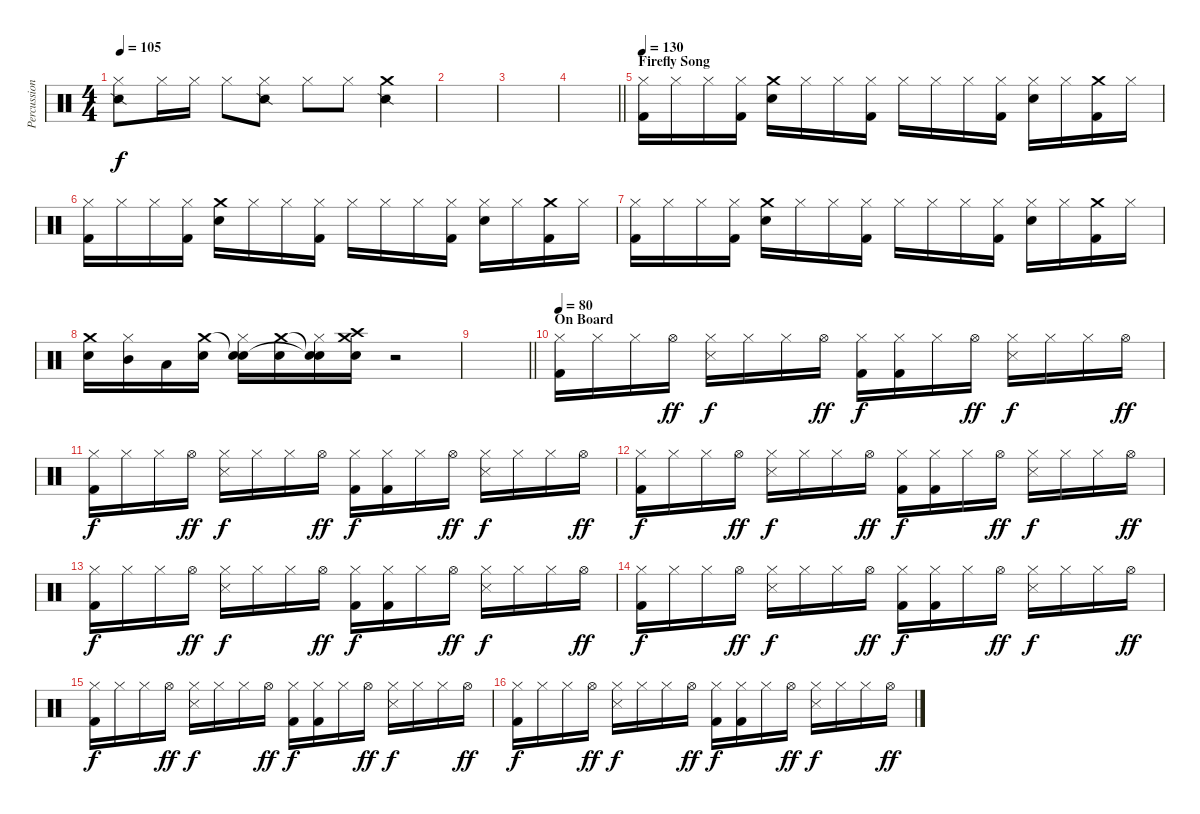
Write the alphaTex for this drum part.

\track ("Percussion" "Percussion") {instrument percussion}
\staff {score}
\articulation defaults
\ts (4 4)
\tempo 105
\clef neutral
\ks c
("Hi-Hat (closed)" "Snare (side stick) 2").8{dy f} "Hi-Hat (closed)".16 "Hi-Hat (closed)".16 "Hi-Hat (closed)".8 ("Hi-Hat (closed)" "Snare (side stick) 2").8 "Hi-Hat (closed)".8 "Hi-Hat (closed)".8 ("Crash medium (hit)" "Snare (side stick) 2").4 |
|
|
\barLineRight lightlight
|
\section ("" "Firefly Song")
\tempo 130
("Hi-Hat (closed)" "Kick (hit) 2").16 "Hi-Hat (closed)".16 "Hi-Hat (closed)".16 ("Hi-Hat (closed)" "Kick (hit) 2").16 ("Crash medium (hit)" "Electric Snare (hit)").16 "Hi-Hat (closed)".16 "Hi-Hat (closed)".16 ("Hi-Hat (closed)" "Kick (hit) 2").16 "Hi-Hat (closed)".16 "Hi-Hat (closed)".16 "Hi-Hat (closed)".16 ("Hi-Hat (closed)" "Kick (hit) 2").16 ("Hi-Hat (closed)" "Electric Snare (hit)").16 "Hi-Hat (closed)".16 ("Crash medium (hit)" "Kick (hit) 2").16 "Hi-Hat (closed)".16 |
("Hi-Hat (closed)" "Kick (hit) 2").16 "Hi-Hat (closed)".16 "Hi-Hat (closed)".16 ("Hi-Hat (closed)" "Kick (hit) 2").16 ("Crash medium (hit)" "Electric Snare (hit)").16 "Hi-Hat (closed)".16 "Hi-Hat (closed)".16 ("Hi-Hat (closed)" "Kick (hit) 2").16 "Hi-Hat (closed)".16 "Hi-Hat (closed)".16 "Hi-Hat (closed)".16 ("Hi-Hat (closed)" "Kick (hit) 2").16 ("Hi-Hat (closed)" "Electric Snare (hit)").16 "Hi-Hat (closed)".16 ("Crash medium (hit)" "Kick (hit) 2").16 "Hi-Hat (closed)".16 |
("Hi-Hat (closed)" "Kick (hit) 2").16 "Hi-Hat (closed)".16 "Hi-Hat (closed)".16 ("Hi-Hat (closed)" "Kick (hit) 2").16 ("Crash medium (hit)" "Electric Snare (hit)").16 "Hi-Hat (closed)".16 "Hi-Hat (closed)".16 ("Hi-Hat (closed)" "Kick (hit) 2").16 "Hi-Hat (closed)".16 "Hi-Hat (closed)".16 "Hi-Hat (closed)".16 ("Hi-Hat (closed)" "Kick (hit) 2").16 ("Hi-Hat (closed)" "Electric Snare (hit)").16 "Hi-Hat (closed)".16 ("Crash medium (hit)" "Kick (hit) 2").16 "Hi-Hat (closed)".16 |
("Crash medium (hit)" "Electric Snare (hit)").16 ("Mid Tom (hit)" "Hi-Hat (closed)").16 "Low Tom (hit)".16 ("Crash medium (hit)" "Electric Snare (hit)").16 ("Snare (hit)"{t} "Hi-Hat (closed)" "Snare (hit)").16 ("Crash medium (hit)" "Electric Snare (hit)").16 ("Snare (hit)"{t} "Hi-Hat (closed)" "Snare (hit)"{t}).16 ("Crash high (hit)" "Crash medium (hit)" "Electric Snare (hit)").16 r.2 |
\barLineRight lightlight
|
\section ("" "On Board")
\tempo 80
("Hi-Hat (closed)" "Kick (hit) 2").16 "Hi-Hat (closed)".16 "Hi-Hat (closed)".16 "Hi-Hat (open)".16{dy ff} ("Hi-Hat (closed)" "Snare (side stick) 3").16{dy f} "Hi-Hat (closed)".16 "Hi-Hat (closed)".16 "Hi-Hat (open)".16{dy ff} ("Hi-Hat (closed)" "Kick (hit) 2").16{dy f} ("Hi-Hat (closed)" "Kick (hit) 2").16 "Hi-Hat (closed)".16 "Hi-Hat (open)".16{dy ff} ("Hi-Hat (closed)" "Snare (side stick) 3").16{dy f} "Hi-Hat (closed)".16 "Hi-Hat (closed)".16 "Hi-Hat (open)".16{dy ff} |
("Hi-Hat (closed)" "Kick (hit) 2").16{dy f} "Hi-Hat (closed)".16 "Hi-Hat (closed)".16 "Hi-Hat (open)".16{dy ff} ("Hi-Hat (closed)" "Snare (side stick) 3").16{dy f} "Hi-Hat (closed)".16 "Hi-Hat (closed)".16 "Hi-Hat (open)".16{dy ff} ("Hi-Hat (closed)" "Kick (hit) 2").16{dy f} ("Hi-Hat (closed)" "Kick (hit) 2").16 "Hi-Hat (closed)".16 "Hi-Hat (open)".16{dy ff} ("Hi-Hat (closed)" "Snare (side stick) 3").16{dy f} "Hi-Hat (closed)".16 "Hi-Hat (closed)".16 "Hi-Hat (open)".16{dy ff} |
("Hi-Hat (closed)" "Kick (hit) 2").16{dy f} "Hi-Hat (closed)".16 "Hi-Hat (closed)".16 "Hi-Hat (open)".16{dy ff} ("Hi-Hat (closed)" "Snare (side stick) 3").16{dy f} "Hi-Hat (closed)".16 "Hi-Hat (closed)".16 "Hi-Hat (open)".16{dy ff} ("Hi-Hat (closed)" "Kick (hit) 2").16{dy f} ("Hi-Hat (closed)" "Kick (hit) 2").16 "Hi-Hat (closed)".16 "Hi-Hat (open)".16{dy ff} ("Hi-Hat (closed)" "Snare (side stick) 3").16{dy f} "Hi-Hat (closed)".16 "Hi-Hat (closed)".16 "Hi-Hat (open)".16{dy ff} |
("Hi-Hat (closed)" "Kick (hit) 2").16{dy f} "Hi-Hat (closed)".16 "Hi-Hat (closed)".16 "Hi-Hat (open)".16{dy ff} ("Hi-Hat (closed)" "Snare (side stick) 3").16{dy f} "Hi-Hat (closed)".16 "Hi-Hat (closed)".16 "Hi-Hat (open)".16{dy ff} ("Hi-Hat (closed)" "Kick (hit) 2").16{dy f} ("Hi-Hat (closed)" "Kick (hit) 2").16 "Hi-Hat (closed)".16 "Hi-Hat (open)".16{dy ff} ("Hi-Hat (closed)" "Snare (side stick) 3").16{dy f} "Hi-Hat (closed)".16 "Hi-Hat (closed)".16 "Hi-Hat (open)".16{dy ff} |
("Hi-Hat (closed)" "Kick (hit) 2").16{dy f} "Hi-Hat (closed)".16 "Hi-Hat (closed)".16 "Hi-Hat (open)".16{dy ff} ("Hi-Hat (closed)" "Snare (side stick) 3").16{dy f} "Hi-Hat (closed)".16 "Hi-Hat (closed)".16 "Hi-Hat (open)".16{dy ff} ("Hi-Hat (closed)" "Kick (hit) 2").16{dy f} ("Hi-Hat (closed)" "Kick (hit) 2").16 "Hi-Hat (closed)".16 "Hi-Hat (open)".16{dy ff} ("Hi-Hat (closed)" "Snare (side stick) 3").16{dy f} "Hi-Hat (closed)".16 "Hi-Hat (closed)".16 "Hi-Hat (open)".16{dy ff} |
("Hi-Hat (closed)" "Kick (hit) 2").16{dy f} "Hi-Hat (closed)".16 "Hi-Hat (closed)".16 "Hi-Hat (open)".16{dy ff} ("Hi-Hat (closed)" "Snare (side stick) 3").16{dy f} "Hi-Hat (closed)".16 "Hi-Hat (closed)".16 "Hi-Hat (open)".16{dy ff} ("Hi-Hat (closed)" "Kick (hit) 2").16{dy f} ("Hi-Hat (closed)" "Kick (hit) 2").16 "Hi-Hat (closed)".16 "Hi-Hat (open)".16{dy ff} ("Hi-Hat (closed)" "Snare (side stick) 3").16{dy f} "Hi-Hat (closed)".16 "Hi-Hat (closed)".16 "Hi-Hat (open)".16{dy ff} |
("Hi-Hat (closed)" "Kick (hit) 2").16{dy f} "Hi-Hat (closed)".16 "Hi-Hat (closed)".16 "Hi-Hat (open)".16{dy ff} ("Hi-Hat (closed)" "Snare (side stick) 3").16{dy f} "Hi-Hat (closed)".16 "Hi-Hat (closed)".16 "Hi-Hat (open)".16{dy ff} ("Hi-Hat (closed)" "Kick (hit) 2").16{dy f} ("Hi-Hat (closed)" "Kick (hit) 2").16 "Hi-Hat (closed)".16 "Hi-Hat (open)".16{dy ff} ("Hi-Hat (closed)" "Snare (side stick) 3").16{dy f} "Hi-Hat (closed)".16 "Hi-Hat (closed)".16 "Hi-Hat (open)".16{dy ff}
